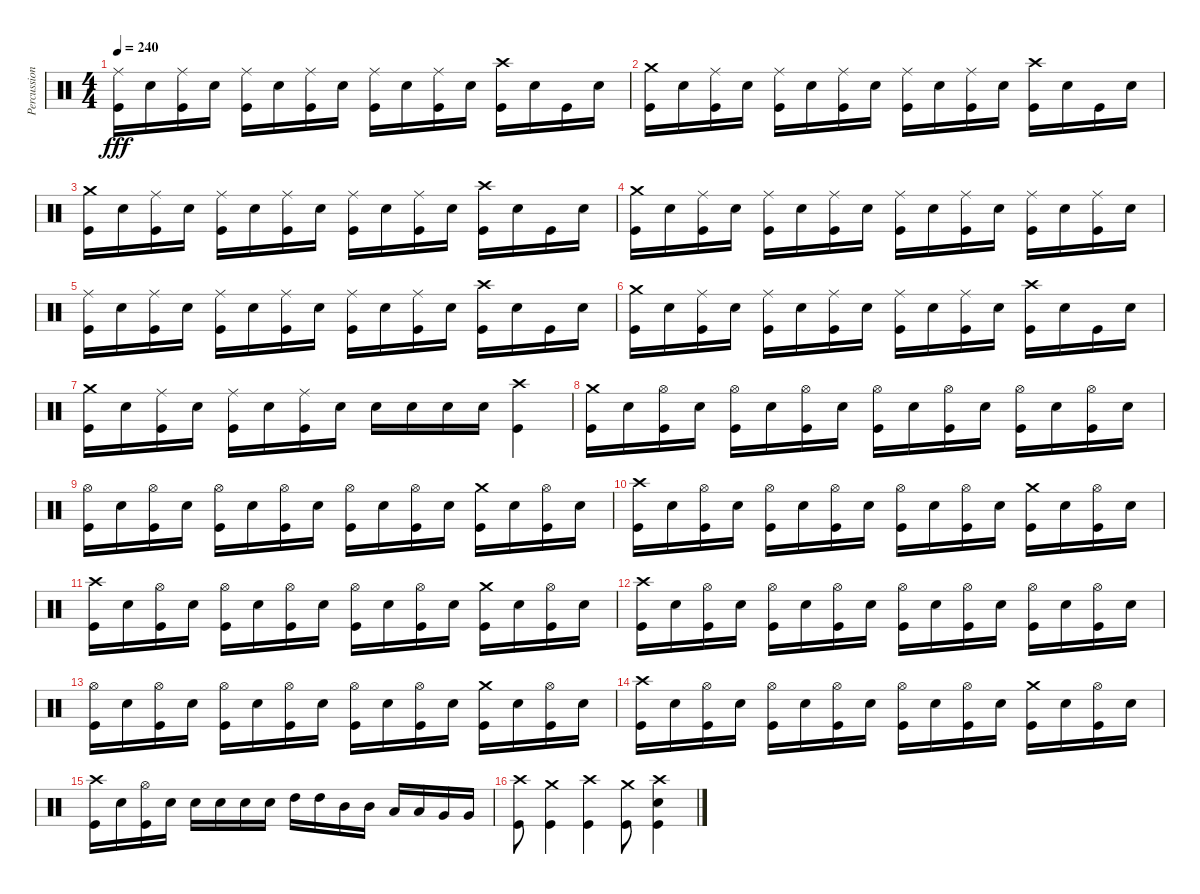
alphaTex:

\track ("Percussion" "Percussion") {instrument percussion}
\staff {score}
\articulation defaults
\ts (4 4)
\tempo 240
\clef neutral
\ks c
("Kick (hit)" "Ride (middle)").16{dy fff} "Snare (hit) 2".16 ("Kick (hit)" "Ride (middle)").16 "Snare (hit) 2".16 ("Kick (hit)" "Ride (middle)").16 "Snare (hit) 2".16 ("Kick (hit)" "Ride (middle)").16 "Snare (hit) 2".16 ("Kick (hit)" "Ride (middle)").16 "Snare (hit) 2".16 ("Kick (hit)" "Ride (middle)").16 "Snare (hit) 2".16 ("Kick (hit)" "Crash high (hit)").16 "Snare (hit) 2".16 "Kick (hit)".16 "Snare (hit) 2".16 |
("Kick (hit)" "Crash medium (hit)").16 "Snare (hit) 2".16 ("Kick (hit)" "Ride (middle)").16 "Snare (hit) 2".16 ("Kick (hit)" "Ride (middle)").16 "Snare (hit) 2".16 ("Kick (hit)" "Ride (middle)").16 "Snare (hit) 2".16 ("Kick (hit)" "Ride (middle)").16 "Snare (hit) 2".16 ("Kick (hit)" "Ride (middle)").16 "Snare (hit) 2".16 ("Kick (hit)" "Crash high (hit)").16 "Snare (hit) 2".16 "Kick (hit)".16 "Snare (hit) 2".16 |
("Kick (hit)" "Crash medium (hit)").16 "Snare (hit) 2".16 ("Kick (hit)" "Ride (middle)").16 "Snare (hit) 2".16 ("Kick (hit)" "Ride (middle)").16 "Snare (hit) 2".16 ("Kick (hit)" "Ride (middle)").16 "Snare (hit) 2".16 ("Kick (hit)" "Ride (middle)").16 "Snare (hit) 2".16 ("Kick (hit)" "Ride (middle)").16 "Snare (hit) 2".16 ("Kick (hit)" "Crash high (hit)").16 "Snare (hit) 2".16 "Kick (hit)".16 "Snare (hit) 2".16 |
("Kick (hit)" "Crash medium (hit)").16 "Snare (hit) 2".16 ("Kick (hit)" "Ride (middle)").16 "Snare (hit) 2".16 ("Kick (hit)" "Ride (middle)").16 "Snare (hit) 2".16 ("Kick (hit)" "Ride (middle)").16 "Snare (hit) 2".16 ("Kick (hit)" "Ride (middle)").16 "Snare (hit) 2".16 ("Kick (hit)" "Ride (middle)").16 "Snare (hit) 2".16 ("Kick (hit)" "Ride (middle)").16 "Snare (hit) 2".16 ("Kick (hit)" "Ride (middle)").16 "Snare (hit) 2".16 |
("Kick (hit)" "Ride (middle)").16 "Snare (hit) 2".16 ("Kick (hit)" "Ride (middle)").16 "Snare (hit) 2".16 ("Kick (hit)" "Ride (middle)").16 "Snare (hit) 2".16 ("Kick (hit)" "Ride (middle)").16 "Snare (hit) 2".16 ("Kick (hit)" "Ride (middle)").16 "Snare (hit) 2".16 ("Kick (hit)" "Ride (middle)").16 "Snare (hit) 2".16 ("Kick (hit)" "Crash high (hit)").16 "Snare (hit) 2".16 "Kick (hit)".16 "Snare (hit) 2".16 |
("Kick (hit)" "Crash medium (hit)").16 "Snare (hit) 2".16 ("Kick (hit)" "Ride (middle)").16 "Snare (hit) 2".16 ("Kick (hit)" "Ride (middle)").16 "Snare (hit) 2".16 ("Kick (hit)" "Ride (middle)").16 "Snare (hit) 2".16 ("Kick (hit)" "Ride (middle)").16 "Snare (hit) 2".16 ("Kick (hit)" "Ride (middle)").16 "Snare (hit) 2".16 ("Kick (hit)" "Crash high (hit)").16 "Snare (hit) 2".16 "Kick (hit)".16 "Snare (hit) 2".16 |
("Kick (hit)" "Crash medium (hit)").16 "Snare (hit) 2".16 ("Kick (hit)" "Ride (middle)").16 "Snare (hit) 2".16 ("Kick (hit)" "Ride (middle)").16 "Snare (hit) 2".16 ("Kick (hit)" "Ride (middle)").16 "Snare (hit) 2".16 "Snare (hit) 2".16 "Snare (hit) 2".16 "Snare (hit) 2".16 "Snare (hit) 2".16 ("Kick (hit)" "Crash high (hit)").4 |
("Kick (hit)" "Crash medium (hit)").16 "Snare (hit) 2".16 ("Kick (hit)" "Hi-Hat (open)").16 "Snare (hit) 2".16 ("Kick (hit)" "Hi-Hat (open)").16 "Snare (hit) 2".16 ("Kick (hit)" "Hi-Hat (open)").16 "Snare (hit) 2".16 ("Kick (hit)" "Hi-Hat (open)").16 "Snare (hit) 2".16 ("Kick (hit)" "Hi-Hat (open)").16 "Snare (hit) 2".16 ("Kick (hit)" "Hi-Hat (open)").16 "Snare (hit) 2".16 ("Kick (hit)" "Hi-Hat (open)").16 "Snare (hit) 2".16 |
("Kick (hit)" "Hi-Hat (open)").16 "Snare (hit) 2".16 ("Kick (hit)" "Hi-Hat (open)").16 "Snare (hit) 2".16 ("Kick (hit)" "Hi-Hat (open)").16 "Snare (hit) 2".16 ("Kick (hit)" "Hi-Hat (open)").16 "Snare (hit) 2".16 ("Kick (hit)" "Hi-Hat (open)").16 "Snare (hit) 2".16 ("Kick (hit)" "Hi-Hat (open)").16 "Snare (hit) 2".16 ("Kick (hit)" "Crash medium (hit)").16 "Snare (hit) 2".16 ("Kick (hit)" "Hi-Hat (open)").16 "Snare (hit) 2".16 |
("Kick (hit)" "Crash high (hit)").16 "Snare (hit) 2".16 ("Kick (hit)" "Hi-Hat (open)").16 "Snare (hit) 2".16 ("Kick (hit)" "Hi-Hat (open)").16 "Snare (hit) 2".16 ("Kick (hit)" "Hi-Hat (open)").16 "Snare (hit) 2".16 ("Kick (hit)" "Hi-Hat (open)").16 "Snare (hit) 2".16 ("Kick (hit)" "Hi-Hat (open)").16 "Snare (hit) 2".16 ("Kick (hit)" "Crash medium (hit)").16 "Snare (hit) 2".16 ("Kick (hit)" "Hi-Hat (open)").16 "Snare (hit) 2".16 |
("Kick (hit)" "Crash high (hit)").16 "Snare (hit) 2".16 ("Kick (hit)" "Hi-Hat (open)").16 "Snare (hit) 2".16 ("Kick (hit)" "Hi-Hat (open)").16 "Snare (hit) 2".16 ("Kick (hit)" "Hi-Hat (open)").16 "Snare (hit) 2".16 ("Kick (hit)" "Hi-Hat (open)").16 "Snare (hit) 2".16 ("Kick (hit)" "Hi-Hat (open)").16 "Snare (hit) 2".16 ("Kick (hit)" "Crash medium (hit)").16 "Snare (hit) 2".16 ("Kick (hit)" "Hi-Hat (open)").16 "Snare (hit) 2".16 |
("Kick (hit)" "Crash high (hit)").16 "Snare (hit) 2".16 ("Kick (hit)" "Hi-Hat (open)").16 "Snare (hit) 2".16 ("Kick (hit)" "Hi-Hat (open)").16 "Snare (hit) 2".16 ("Kick (hit)" "Hi-Hat (open)").16 "Snare (hit) 2".16 ("Kick (hit)" "Hi-Hat (open)").16 "Snare (hit) 2".16 ("Kick (hit)" "Hi-Hat (open)").16 "Snare (hit) 2".16 ("Kick (hit)" "Hi-Hat (open)").16 "Snare (hit) 2".16 ("Kick (hit)" "Hi-Hat (open)").16 "Snare (hit) 2".16 |
("Kick (hit)" "Hi-Hat (open)").16 "Snare (hit) 2".16 ("Kick (hit)" "Hi-Hat (open)").16 "Snare (hit) 2".16 ("Kick (hit)" "Hi-Hat (open)").16 "Snare (hit) 2".16 ("Kick (hit)" "Hi-Hat (open)").16 "Snare (hit) 2".16 ("Kick (hit)" "Hi-Hat (open)").16 "Snare (hit) 2".16 ("Kick (hit)" "Hi-Hat (open)").16 "Snare (hit) 2".16 ("Kick (hit)" "Crash medium (hit)").16 "Snare (hit) 2".16 ("Kick (hit)" "Hi-Hat (open)").16 "Snare (hit) 2".16 |
("Kick (hit)" "Crash high (hit)").16 "Snare (hit) 2".16 ("Kick (hit)" "Hi-Hat (open)").16 "Snare (hit) 2".16 ("Kick (hit)" "Hi-Hat (open)").16 "Snare (hit) 2".16 ("Kick (hit)" "Hi-Hat (open)").16 "Snare (hit) 2".16 ("Kick (hit)" "Hi-Hat (open)").16 "Snare (hit) 2".16 ("Kick (hit)" "Hi-Hat (open)").16 "Snare (hit) 2".16 ("Kick (hit)" "Crash medium (hit)").16 "Snare (hit) 2".16 ("Kick (hit)" "Hi-Hat (open)").16 "Snare (hit) 2".16 |
("Kick (hit)" "Crash high (hit)").16 "Snare (hit) 2".16 ("Kick (hit)" "Hi-Hat (open)").16 "Snare (hit) 2".16 "Snare (hit) 2".16 "Snare (hit) 2".16 "Snare (hit) 2".16 "Snare (hit) 2".16 "High Tom (hit)".16 "High Tom (hit)".16 "Mid Tom (hit)".16 "Mid Tom (hit)".16 "Low Tom (hit)".16 "Low Tom (hit)".16 "Very Low Tom (hit)".16 "Very Low Tom (hit)".16 |
("Crash high (hit)" "Kick (hit)").8 ("Kick (hit)" "Crash medium (hit)").4 ("Kick (hit)" "Crash high (hit)").4 ("Kick (hit)" "Crash medium (hit)").8 ("Kick (hit)" "Crash high (hit)" "Snare (hit) 2").4
